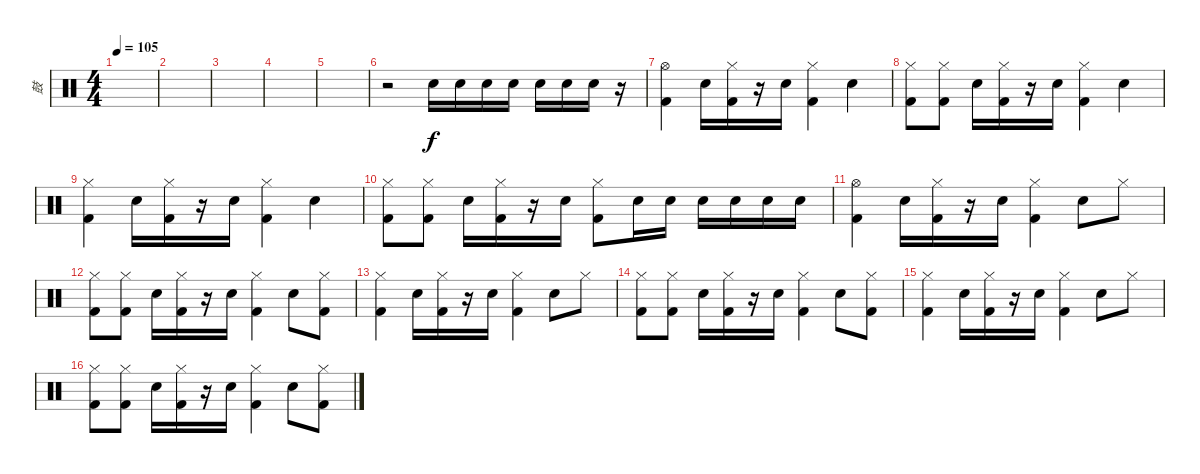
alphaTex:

\track ("鼓" "鼓") {instrument percussion}
\staff {score}
\articulation defaults
\ts (4 4)
\tempo 105
\clef neutral
\ks c
|
|
|
|
|
r.2 "Electric Snare (hit)".16 "Electric Snare (hit)".16 "Electric Snare (hit)".16 "Electric Snare (hit)".16 "Snare (hit) 2".16 "Snare (hit) 2".16 "Snare (hit) 2".16 r.16 |
("Hi-Hat (open)" "Kick (hit) 2").4 "Electric Snare (hit)".16 ("Hi-Hat (closed)" "Kick (hit) 2").16 r.16 "Electric Snare (hit)".16 ("Hi-Hat (closed)" "Kick (hit) 2").4 "Electric Snare (hit)".4 |
("Hi-Hat (closed)" "Kick (hit) 2").8 ("Hi-Hat (closed)" "Kick (hit) 2").8 "Electric Snare (hit)".16 ("Hi-Hat (closed)" "Kick (hit) 2").16 r.16 "Electric Snare (hit)".16 ("Hi-Hat (closed)" "Kick (hit) 2").4 "Electric Snare (hit)".4 |
("Hi-Hat (closed)" "Kick (hit) 2").4 "Electric Snare (hit)".16 ("Hi-Hat (closed)" "Kick (hit) 2").16 r.16 "Electric Snare (hit)".16 ("Hi-Hat (closed)" "Kick (hit) 2").4 "Electric Snare (hit)".4 |
("Hi-Hat (closed)" "Kick (hit) 2").8 ("Hi-Hat (closed)" "Kick (hit) 2").8 "Electric Snare (hit)".16 ("Hi-Hat (closed)" "Kick (hit) 2").16 r.16 "Electric Snare (hit)".16 ("Hi-Hat (closed)" "Kick (hit) 2").8 "Electric Snare (hit)".16 "Electric Snare (hit)".16 "Electric Snare (hit)".16 "Electric Snare (hit)".16 "Electric Snare (hit)".16 "Electric Snare (hit)".16 |
("Hi-Hat (open)" "Kick (hit) 2").4 "Electric Snare (hit)".16 ("Hi-Hat (closed)" "Kick (hit) 2").16 r.16 "Electric Snare (hit)".16 ("Hi-Hat (closed)" "Kick (hit) 2").4 "Electric Snare (hit)".8 "Hi-Hat (closed)".8 |
("Hi-Hat (closed)" "Kick (hit) 2").8 ("Hi-Hat (closed)" "Kick (hit) 2").8 "Electric Snare (hit)".16 ("Hi-Hat (closed)" "Kick (hit) 2").16 r.16 "Electric Snare (hit)".16 ("Hi-Hat (closed)" "Kick (hit) 2").4 "Electric Snare (hit)".8 ("Hi-Hat (closed)" "Kick (hit) 2").8 |
("Hi-Hat (closed)" "Kick (hit) 2").4 "Electric Snare (hit)".16 ("Hi-Hat (closed)" "Kick (hit) 2").16 r.16 "Electric Snare (hit)".16 ("Hi-Hat (closed)" "Kick (hit) 2").4 "Electric Snare (hit)".8 "Hi-Hat (closed)".8 |
("Hi-Hat (closed)" "Kick (hit) 2").8 ("Hi-Hat (closed)" "Kick (hit) 2").8 "Electric Snare (hit)".16 ("Hi-Hat (closed)" "Kick (hit) 2").16 r.16 "Electric Snare (hit)".16 ("Hi-Hat (closed)" "Kick (hit) 2").4 "Electric Snare (hit)".8 ("Hi-Hat (closed)" "Kick (hit) 2").8 |
("Hi-Hat (closed)" "Kick (hit) 2").4 "Electric Snare (hit)".16 ("Hi-Hat (closed)" "Kick (hit) 2").16 r.16 "Electric Snare (hit)".16 ("Hi-Hat (closed)" "Kick (hit) 2").4 "Electric Snare (hit)".8 "Hi-Hat (closed)".8 |
("Hi-Hat (closed)" "Kick (hit) 2").8 ("Hi-Hat (closed)" "Kick (hit) 2").8 "Electric Snare (hit)".16 ("Hi-Hat (closed)" "Kick (hit) 2").16 r.16 "Electric Snare (hit)".16 ("Hi-Hat (closed)" "Kick (hit) 2").4 "Electric Snare (hit)".8 ("Hi-Hat (closed)" "Kick (hit) 2").8
